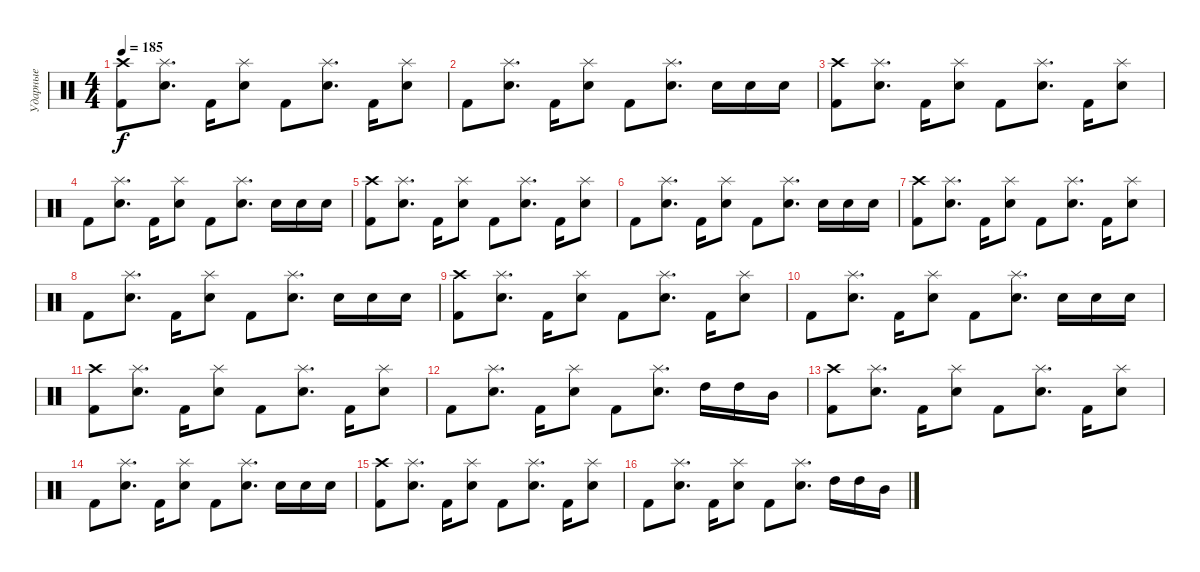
\track ("Ударные" "Ударные") {instrument percussion}
\staff {score}
\articulation defaults
\ts (4 4)
\tempo 185
\clef neutral
\ks c
("Crash high (hit)" "Kick (hit) 2").8{dy f} ("Splash (hit)" "Electric Snare (hit)").8{d} "Kick (hit) 2".16 ("Splash (hit)" "Electric Snare (hit)").8 "Kick (hit) 2".8 ("Splash (hit)" "Electric Snare (hit)").8{d} "Kick (hit) 2".16 ("Splash (hit)" "Electric Snare (hit)").8 |
"Kick (hit) 2".8 ("Splash (hit)" "Electric Snare (hit)").8{d} "Kick (hit) 2".16 ("Splash (hit)" "Electric Snare (hit)").8 "Kick (hit) 2".8 ("Splash (hit)" "Electric Snare (hit)").8{d} "Electric Snare (hit)".16 "Electric Snare (hit)".16 "Electric Snare (hit)".16 |
("Crash high (hit)" "Kick (hit) 2").8 ("Splash (hit)" "Electric Snare (hit)").8{d} "Kick (hit) 2".16 ("Splash (hit)" "Electric Snare (hit)").8 "Kick (hit) 2".8 ("Splash (hit)" "Electric Snare (hit)").8{d} "Kick (hit) 2".16 ("Splash (hit)" "Electric Snare (hit)").8 |
"Kick (hit) 2".8 ("Splash (hit)" "Electric Snare (hit)").8{d} "Kick (hit) 2".16 ("Splash (hit)" "Electric Snare (hit)").8 "Kick (hit) 2".8 ("Splash (hit)" "Electric Snare (hit)").8{d} "Electric Snare (hit)".16 "Electric Snare (hit)".16 "Electric Snare (hit)".16 |
("Crash high (hit)" "Kick (hit) 2").8 ("Splash (hit)" "Electric Snare (hit)").8{d} "Kick (hit) 2".16 ("Splash (hit)" "Electric Snare (hit)").8 "Kick (hit) 2".8 ("Splash (hit)" "Electric Snare (hit)").8{d} "Kick (hit) 2".16 ("Splash (hit)" "Electric Snare (hit)").8 |
"Kick (hit) 2".8 ("Splash (hit)" "Electric Snare (hit)").8{d} "Kick (hit) 2".16 ("Splash (hit)" "Electric Snare (hit)").8 "Kick (hit) 2".8 ("Splash (hit)" "Electric Snare (hit)").8{d} "Electric Snare (hit)".16 "Electric Snare (hit)".16 "Electric Snare (hit)".16 |
("Crash high (hit)" "Kick (hit) 2").8 ("Splash (hit)" "Electric Snare (hit)").8{d} "Kick (hit) 2".16 ("Splash (hit)" "Electric Snare (hit)").8 "Kick (hit) 2".8 ("Splash (hit)" "Electric Snare (hit)").8{d} "Kick (hit) 2".16 ("Splash (hit)" "Electric Snare (hit)").8 |
"Kick (hit) 2".8 ("Splash (hit)" "Electric Snare (hit)").8{d} "Kick (hit) 2".16 ("Splash (hit)" "Electric Snare (hit)").8 "Kick (hit) 2".8 ("Splash (hit)" "Electric Snare (hit)").8{d} "Electric Snare (hit)".16 "Electric Snare (hit)".16 "Electric Snare (hit)".16 |
("Crash high (hit)" "Kick (hit) 2").8 ("Splash (hit)" "Electric Snare (hit)").8{d} "Kick (hit) 2".16 ("Splash (hit)" "Electric Snare (hit)").8 "Kick (hit) 2".8 ("Splash (hit)" "Electric Snare (hit)").8{d} "Kick (hit) 2".16 ("Splash (hit)" "Electric Snare (hit)").8 |
"Kick (hit) 2".8 ("Splash (hit)" "Electric Snare (hit)").8{d} "Kick (hit) 2".16 ("Splash (hit)" "Electric Snare (hit)").8 "Kick (hit) 2".8 ("Splash (hit)" "Electric Snare (hit)").8{d} "Electric Snare (hit)".16 "Electric Snare (hit)".16 "Electric Snare (hit)".16 |
("Crash high (hit)" "Kick (hit) 2").8 ("Splash (hit)" "Electric Snare (hit)").8{d} "Kick (hit) 2".16 ("Splash (hit)" "Electric Snare (hit)").8 "Kick (hit) 2".8 ("Splash (hit)" "Electric Snare (hit)").8{d} "Kick (hit) 2".16 ("Splash (hit)" "Electric Snare (hit)").8 |
"Kick (hit) 2".8 ("Splash (hit)" "Electric Snare (hit)").8{d} "Kick (hit) 2".16 ("Splash (hit)" "Electric Snare (hit)").8 "Kick (hit) 2".8 ("Splash (hit)" "Electric Snare (hit)").8{d} "High Tom (hit)".16 "High Tom (hit)".16 "Mid Tom (hit)".16 |
("Crash high (hit)" "Kick (hit) 2").8 ("Splash (hit)" "Electric Snare (hit)").8{d} "Kick (hit) 2".16 ("Splash (hit)" "Electric Snare (hit)").8 "Kick (hit) 2".8 ("Splash (hit)" "Electric Snare (hit)").8{d} "Kick (hit) 2".16 ("Splash (hit)" "Electric Snare (hit)").8 |
"Kick (hit) 2".8 ("Splash (hit)" "Electric Snare (hit)").8{d} "Kick (hit) 2".16 ("Splash (hit)" "Electric Snare (hit)").8 "Kick (hit) 2".8 ("Splash (hit)" "Electric Snare (hit)").8{d} "Electric Snare (hit)".16 "Electric Snare (hit)".16 "Electric Snare (hit)".16 |
("Crash high (hit)" "Kick (hit) 2").8 ("Splash (hit)" "Electric Snare (hit)").8{d} "Kick (hit) 2".16 ("Splash (hit)" "Electric Snare (hit)").8 "Kick (hit) 2".8 ("Splash (hit)" "Electric Snare (hit)").8{d} "Kick (hit) 2".16 ("Splash (hit)" "Electric Snare (hit)").8 |
"Kick (hit) 2".8 ("Splash (hit)" "Electric Snare (hit)").8{d} "Kick (hit) 2".16 ("Splash (hit)" "Electric Snare (hit)").8 "Kick (hit) 2".8 ("Splash (hit)" "Electric Snare (hit)").8{d} "High Tom (hit)".16 "High Tom (hit)".16 "Mid Tom (hit)".16
